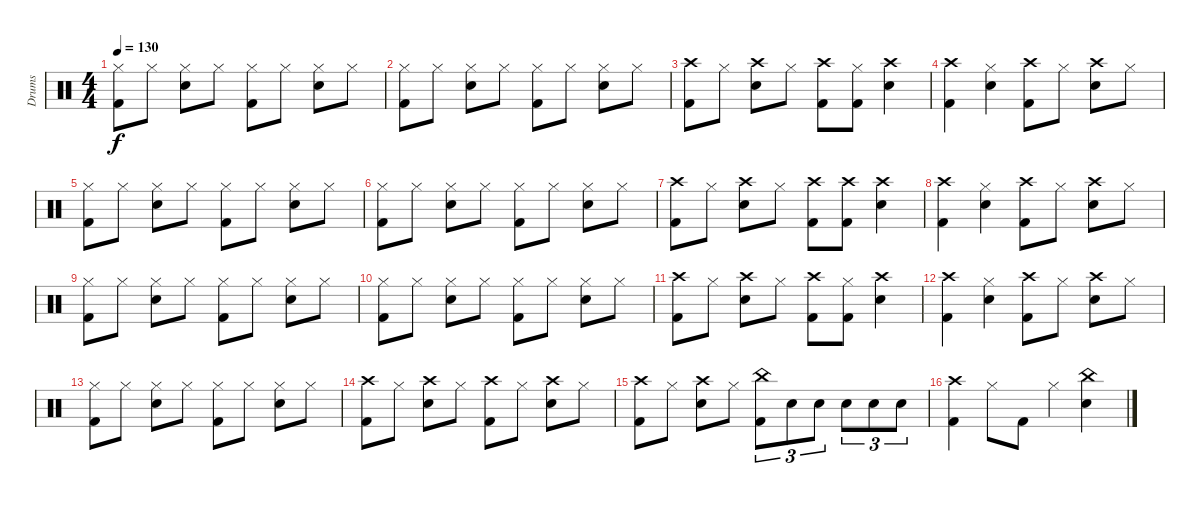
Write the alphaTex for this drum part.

\track ("Drums" "Drums") {instrument percussion}
\staff {score}
\articulation defaults
\ts (4 4)
\tempo 130
\clef neutral
\ks c
("Hi-Hat (closed)" "Kick (hit) 2").8{dy f} "Hi-Hat (closed)".8 ("Hi-Hat (closed)" "Electric Snare (hit)").8 "Hi-Hat (closed)".8 ("Hi-Hat (closed)" "Kick (hit) 2").8 "Hi-Hat (closed)".8 ("Hi-Hat (closed)" "Electric Snare (hit)").8 "Hi-Hat (closed)".8 |
("Hi-Hat (closed)" "Kick (hit) 2").8 "Hi-Hat (closed)".8 ("Hi-Hat (closed)" "Electric Snare (hit)").8 "Hi-Hat (closed)".8 ("Hi-Hat (closed)" "Kick (hit) 2").8 "Hi-Hat (closed)".8 ("Hi-Hat (closed)" "Electric Snare (hit)").8 "Hi-Hat (closed)".8 |
("Crash high (hit)" "Kick (hit) 2").8 "Hi-Hat (closed)".8 ("Crash high (hit)" "Electric Snare (hit)").8 "Hi-Hat (closed)".8 ("Crash high (hit)" "Kick (hit) 2").8 ("Hi-Hat (closed)" "Kick (hit) 2").8 ("Crash high (hit)" "Electric Snare (hit)").4 |
("Crash high (hit)" "Kick (hit) 2").4 ("Hi-Hat (closed)" "Electric Snare (hit)").4 ("Crash high (hit)" "Kick (hit) 2").8 "Hi-Hat (closed)".8 ("Crash high (hit)" "Electric Snare (hit)").8 "Hi-Hat (closed)".8 |
("Hi-Hat (closed)" "Kick (hit) 2").8 "Hi-Hat (closed)".8 ("Hi-Hat (closed)" "Electric Snare (hit)").8 "Hi-Hat (closed)".8 ("Hi-Hat (closed)" "Kick (hit) 2").8 "Hi-Hat (closed)".8 ("Hi-Hat (closed)" "Electric Snare (hit)").8 "Hi-Hat (closed)".8 |
("Hi-Hat (closed)" "Kick (hit) 2").8 "Hi-Hat (closed)".8 ("Hi-Hat (closed)" "Electric Snare (hit)").8 "Hi-Hat (closed)".8 ("Hi-Hat (closed)" "Kick (hit) 2").8 "Hi-Hat (closed)".8 ("Hi-Hat (closed)" "Electric Snare (hit)").8 "Hi-Hat (closed)".8 |
("Crash high (hit)" "Kick (hit) 2").8 "Hi-Hat (closed)".8 ("Crash high (hit)" "Electric Snare (hit)").8 "Hi-Hat (closed)".8 ("Crash high (hit)" "Kick (hit) 2").8 ("Crash high (hit)" "Kick (hit) 2").8 ("Crash high (hit)" "Electric Snare (hit)").4 |
("Crash high (hit)" "Kick (hit) 2").4 ("Hi-Hat (closed)" "Electric Snare (hit)").4 ("Crash high (hit)" "Kick (hit) 2").8 "Hi-Hat (closed)".8 ("Crash high (hit)" "Electric Snare (hit)").8 "Hi-Hat (closed)".8 |
("Hi-Hat (closed)" "Kick (hit) 2").8 "Hi-Hat (closed)".8 ("Hi-Hat (closed)" "Electric Snare (hit)").8 "Hi-Hat (closed)".8 ("Hi-Hat (closed)" "Kick (hit) 2").8 "Hi-Hat (closed)".8 ("Hi-Hat (closed)" "Electric Snare (hit)").8 "Hi-Hat (closed)".8 |
("Hi-Hat (closed)" "Kick (hit) 2").8 "Hi-Hat (closed)".8 ("Hi-Hat (closed)" "Electric Snare (hit)").8 "Hi-Hat (closed)".8 ("Hi-Hat (closed)" "Kick (hit) 2").8 "Hi-Hat (closed)".8 ("Hi-Hat (closed)" "Electric Snare (hit)").8 "Hi-Hat (closed)".8 |
("Crash high (hit)" "Kick (hit) 2").8 "Hi-Hat (closed)".8 ("Crash high (hit)" "Electric Snare (hit)").8 "Hi-Hat (closed)".8 ("Crash high (hit)" "Kick (hit) 2").8 ("Hi-Hat (closed)" "Kick (hit) 2").8 ("Crash high (hit)" "Electric Snare (hit)").4 |
("Crash high (hit)" "Kick (hit) 2").4 ("Hi-Hat (closed)" "Electric Snare (hit)").4 ("Crash high (hit)" "Kick (hit) 2").8 "Hi-Hat (closed)".8 ("Crash high (hit)" "Electric Snare (hit)").8 "Hi-Hat (closed)".8 |
("Hi-Hat (closed)" "Kick (hit) 2").8 "Hi-Hat (closed)".8 ("Hi-Hat (closed)" "Electric Snare (hit)").8 "Hi-Hat (closed)".8 ("Hi-Hat (closed)" "Kick (hit) 2").8 "Hi-Hat (closed)".8 ("Hi-Hat (closed)" "Electric Snare (hit)").8 "Hi-Hat (closed)".8 |
("Crash high (hit)" "Kick (hit) 2").8 "Hi-Hat (closed)".8 ("Crash high (hit)" "Electric Snare (hit)").8 "Hi-Hat (closed)".8 ("Crash high (hit)" "Kick (hit) 2").8 "Hi-Hat (closed)".8 ("Crash high (hit)" "Electric Snare (hit)").8 "Hi-Hat (closed)".8 |
("Crash high (hit)" "Kick (hit) 2").8 "Hi-Hat (closed)".8 ("Crash high (hit)" "Electric Snare (hit)").8 "Hi-Hat (closed)".8 ("China (hit)" "Kick (hit) 2").8{tu (3 2)} "Electric Snare (hit)".8{tu (3 2)} "Electric Snare (hit)".8{tu (3 2)} "Electric Snare (hit)".8{tu (3 2)} "Electric Snare (hit)".8{tu (3 2)} "Electric Snare (hit)".8{tu (3 2)} |
("Crash high (hit)" "Kick (hit) 2").4 "Hi-Hat (closed)".8 "Kick (hit) 2".8 "Hi-Hat (closed)".4 ("China (hit)" "Electric Snare (hit)").4
